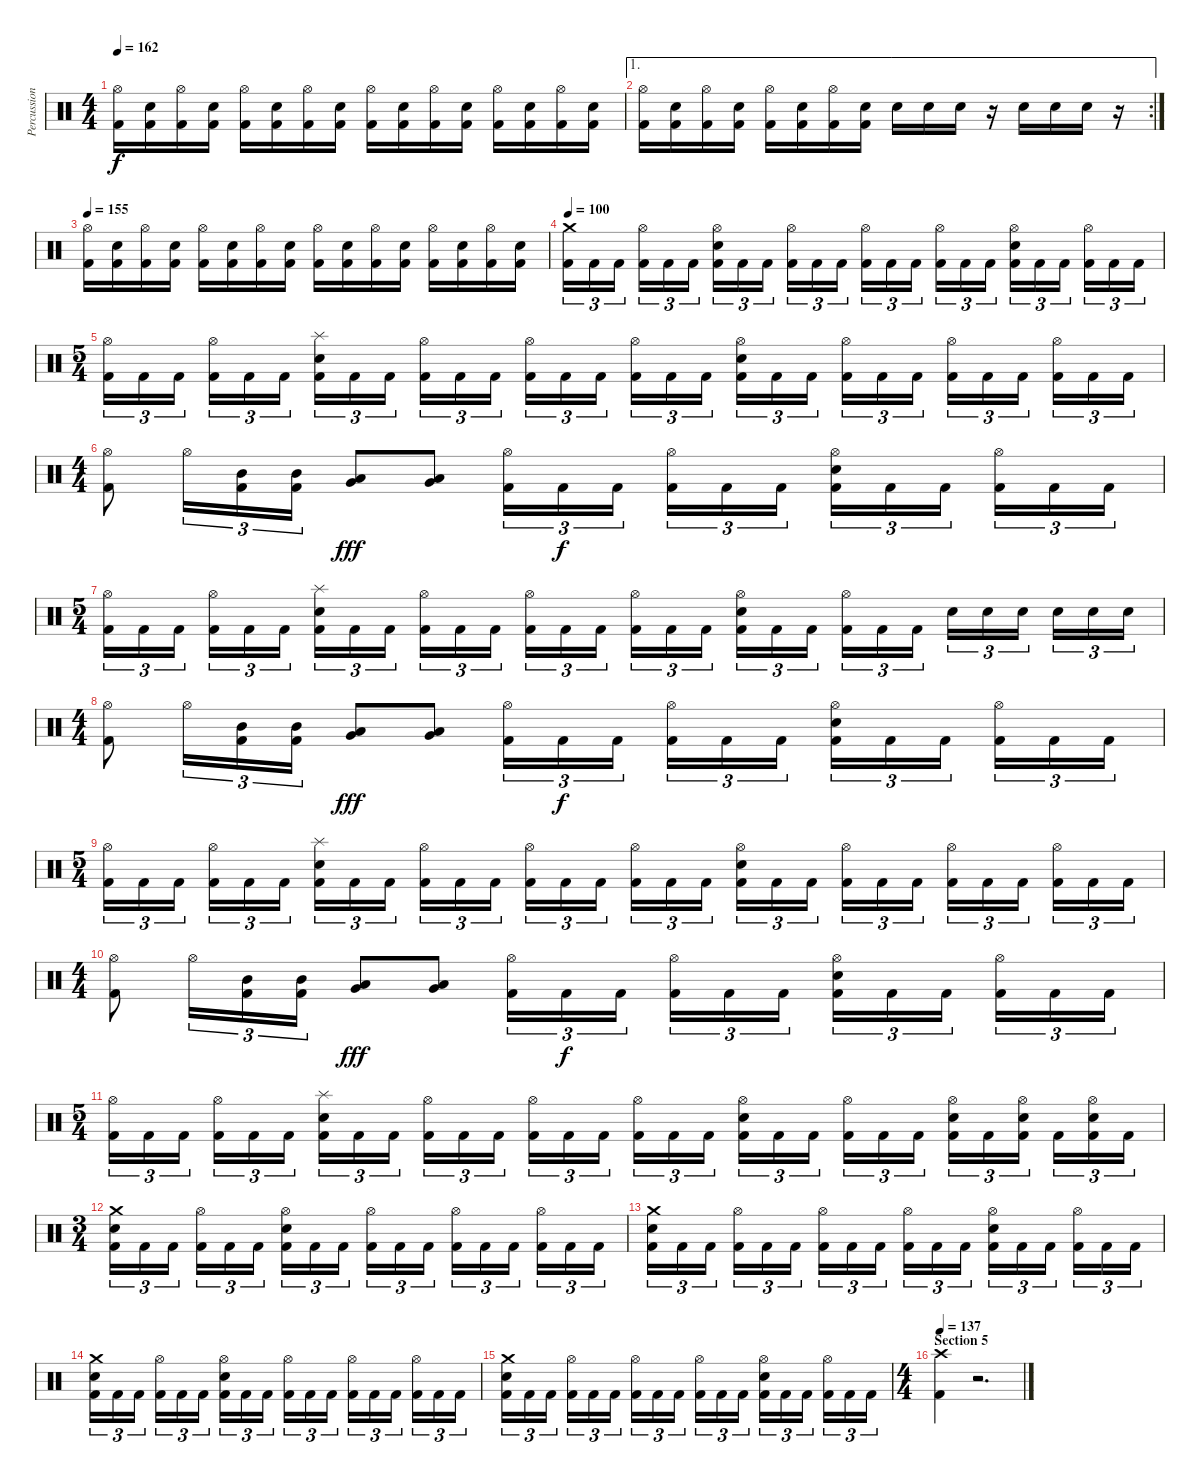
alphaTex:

\track ("Percussion" "Percussion") {instrument percussion}
\staff {score}
\articulation defaults
\ts (4 4)
\tempo 162
\clef neutral
\ks c
("Hi-Hat (open)" "Kick (hit) 2").16{dy f} ("Electric Snare (hit)" "Kick (hit) 2").16 ("Hi-Hat (open)" "Kick (hit) 2").16 ("Electric Snare (hit)" "Kick (hit) 2").16 ("Hi-Hat (open)" "Kick (hit) 2").16 ("Electric Snare (hit)" "Kick (hit) 2").16 ("Hi-Hat (open)" "Kick (hit) 2").16 ("Electric Snare (hit)" "Kick (hit) 2").16 ("Hi-Hat (open)" "Kick (hit) 2").16 ("Electric Snare (hit)" "Kick (hit) 2").16 ("Hi-Hat (open)" "Kick (hit) 2").16 ("Electric Snare (hit)" "Kick (hit) 2").16 ("Hi-Hat (open)" "Kick (hit) 2").16 ("Electric Snare (hit)" "Kick (hit) 2").16 ("Hi-Hat (open)" "Kick (hit) 2").16 ("Electric Snare (hit)" "Kick (hit) 2").16 |
\ae 1
\rc 2
("Hi-Hat (open)" "Kick (hit) 2").16 ("Electric Snare (hit)" "Kick (hit) 2").16 ("Hi-Hat (open)" "Kick (hit) 2").16 ("Electric Snare (hit)" "Kick (hit) 2").16 ("Hi-Hat (open)" "Kick (hit) 2").16 ("Electric Snare (hit)" "Kick (hit) 2").16 ("Hi-Hat (open)" "Kick (hit) 2").16 ("Electric Snare (hit)" "Kick (hit) 2").16 "Electric Snare (hit)".16 "Electric Snare (hit)".16 "Electric Snare (hit)".16 r.16 "Electric Snare (hit)".16 "Electric Snare (hit)".16 "Electric Snare (hit)".16 r.16 |
\tempo 155
("Hi-Hat (open)" "Kick (hit) 2").16 ("Electric Snare (hit)" "Kick (hit) 2").16 ("Hi-Hat (open)" "Kick (hit) 2").16 ("Electric Snare (hit)" "Kick (hit) 2").16 ("Hi-Hat (open)" "Kick (hit) 2").16 ("Electric Snare (hit)" "Kick (hit) 2").16 ("Hi-Hat (open)" "Kick (hit) 2").16 ("Electric Snare (hit)" "Kick (hit) 2").16 ("Hi-Hat (open)" "Kick (hit) 2").16 ("Electric Snare (hit)" "Kick (hit) 2").16 ("Hi-Hat (open)" "Kick (hit) 2").16 ("Electric Snare (hit)" "Kick (hit) 2").16 ("Hi-Hat (open)" "Kick (hit) 2").16 ("Electric Snare (hit)" "Kick (hit) 2").16 ("Hi-Hat (open)" "Kick (hit) 2").16 ("Electric Snare (hit)" "Kick (hit) 2").16 |
\tempo 100
("Crash medium (hit)" "Kick (hit) 2").16{tu (3 2)} "Kick (hit) 2".16{tu (3 2)} "Kick (hit) 2".16{tu (3 2)} ("Hi-Hat (open)" "Kick (hit) 2").16{tu (3 2)} "Kick (hit) 2".16{tu (3 2)} "Kick (hit) 2".16{tu (3 2)} ("Hi-Hat (open)" "Electric Snare (hit)" "Kick (hit) 2").16{tu (3 2)} "Kick (hit) 2".16{tu (3 2)} "Kick (hit) 2".16{tu (3 2)} ("Hi-Hat (open)" "Kick (hit) 2").16{tu (3 2)} "Kick (hit) 2".16{tu (3 2)} "Kick (hit) 2".16{tu (3 2)} ("Hi-Hat (open)" "Kick (hit) 2").16{tu (3 2)} "Kick (hit) 2".16{tu (3 2)} "Kick (hit) 2".16{tu (3 2)} ("Hi-Hat (open)" "Kick (hit) 2").16{tu (3 2)} "Kick (hit) 2".16{tu (3 2)} "Kick (hit) 2".16{tu (3 2)} ("Hi-Hat (open)" "Electric Snare (hit)" "Kick (hit) 2").16{tu (3 2)} "Kick (hit) 2".16{tu (3 2)} "Kick (hit) 2".16{tu (3 2)} ("Hi-Hat (open)" "Kick (hit) 2").16{tu (3 2)} "Kick (hit) 2".16{tu (3 2)} "Kick (hit) 2".16{tu (3 2)} |
\ts (5 4)
("Hi-Hat (open)" "Kick (hit) 2").16{tu (3 2)} "Kick (hit) 2".16{tu (3 2)} "Kick (hit) 2".16{tu (3 2)} ("Hi-Hat (open)" "Kick (hit) 2").16{tu (3 2)} "Kick (hit) 2".16{tu (3 2)} "Kick (hit) 2".16{tu (3 2)} ("Splash (hit)" "Electric Snare (hit)" "Kick (hit) 2").16{tu (3 2)} "Kick (hit) 2".16{tu (3 2)} "Kick (hit) 2".16{tu (3 2)} ("Hi-Hat (open)" "Kick (hit) 2").16{tu (3 2)} "Kick (hit) 2".16{tu (3 2)} "Kick (hit) 2".16{tu (3 2)} ("Hi-Hat (open)" "Kick (hit) 2").16{tu (3 2)} "Kick (hit) 2".16{tu (3 2)} "Kick (hit) 2".16{tu (3 2)} ("Hi-Hat (open)" "Kick (hit) 2").16{tu (3 2)} "Kick (hit) 2".16{tu (3 2)} "Kick (hit) 2".16{tu (3 2)} ("Hi-Hat (open)" "Electric Snare (hit)" "Kick (hit) 2").16{tu (3 2)} "Kick (hit) 2".16{tu (3 2)} "Kick (hit) 2".16{tu (3 2)} ("Hi-Hat (open)" "Kick (hit) 2").16{tu (3 2)} "Kick (hit) 2".16{tu (3 2)} "Kick (hit) 2".16{tu (3 2)} ("Hi-Hat (open)" "Kick (hit) 2").16{tu (3 2)} "Kick (hit) 2".16{tu (3 2)} "Kick (hit) 2".16{tu (3 2)} ("Hi-Hat (open)" "Kick (hit) 2").16{tu (3 2)} "Kick (hit) 2".16{tu (3 2)} "Kick (hit) 2".16{tu (3 2)} |
\ts (4 4)
("Hi-Hat (open)" "Kick (hit) 2").8 "Hi-Hat (open)".16{tu (3 2)} ("Mid Tom (hit)" "Kick (hit) 2").16{tu (3 2)} ("Mid Tom (hit)" "Kick (hit) 2").16{tu (3 2)} ("Low Tom (hit)" "Very Low Tom (hit)").8{dy fff} ("Low Tom (hit)" "Very Low Tom (hit)").8 ("Hi-Hat (open)" "Kick (hit) 2").16{tu (3 2)} "Kick (hit) 2".16{tu (3 2) dy f} "Kick (hit) 2".16{tu (3 2)} ("Hi-Hat (open)" "Kick (hit) 2").16{tu (3 2)} "Kick (hit) 2".16{tu (3 2)} "Kick (hit) 2".16{tu (3 2)} ("Hi-Hat (open)" "Electric Snare (hit)" "Kick (hit) 2").16{tu (3 2)} "Kick (hit) 2".16{tu (3 2)} "Kick (hit) 2".16{tu (3 2)} ("Hi-Hat (open)" "Kick (hit) 2").16{tu (3 2)} "Kick (hit) 2".16{tu (3 2)} "Kick (hit) 2".16{tu (3 2)} |
\ts (5 4)
("Hi-Hat (open)" "Kick (hit) 2").16{tu (3 2)} "Kick (hit) 2".16{tu (3 2)} "Kick (hit) 2".16{tu (3 2)} ("Hi-Hat (open)" "Kick (hit) 2").16{tu (3 2)} "Kick (hit) 2".16{tu (3 2)} "Kick (hit) 2".16{tu (3 2)} ("Splash (hit)" "Electric Snare (hit)" "Kick (hit) 2").16{tu (3 2)} "Kick (hit) 2".16{tu (3 2)} "Kick (hit) 2".16{tu (3 2)} ("Hi-Hat (open)" "Kick (hit) 2").16{tu (3 2)} "Kick (hit) 2".16{tu (3 2)} "Kick (hit) 2".16{tu (3 2)} ("Hi-Hat (open)" "Kick (hit) 2").16{tu (3 2)} "Kick (hit) 2".16{tu (3 2)} "Kick (hit) 2".16{tu (3 2)} ("Hi-Hat (open)" "Kick (hit) 2").16{tu (3 2)} "Kick (hit) 2".16{tu (3 2)} "Kick (hit) 2".16{tu (3 2)} ("Hi-Hat (open)" "Electric Snare (hit)" "Kick (hit) 2").16{tu (3 2)} "Kick (hit) 2".16{tu (3 2)} "Kick (hit) 2".16{tu (3 2)} ("Hi-Hat (open)" "Kick (hit) 2").16{tu (3 2)} "Kick (hit) 2".16{tu (3 2)} "Kick (hit) 2".16{tu (3 2)} "Electric Snare (hit)".16{tu (3 2)} "Electric Snare (hit)".16{tu (3 2)} "Electric Snare (hit)".16{tu (3 2)} "Electric Snare (hit)".16{tu (3 2)} "Electric Snare (hit)".16{tu (3 2)} "Electric Snare (hit)".16{tu (3 2)} |
\ts (4 4)
("Hi-Hat (open)" "Kick (hit) 2").8 "Hi-Hat (open)".16{tu (3 2)} ("Mid Tom (hit)" "Kick (hit) 2").16{tu (3 2)} ("Mid Tom (hit)" "Kick (hit) 2").16{tu (3 2)} ("Low Tom (hit)" "Very Low Tom (hit)").8{dy fff} ("Low Tom (hit)" "Very Low Tom (hit)").8 ("Hi-Hat (open)" "Kick (hit) 2").16{tu (3 2)} "Kick (hit) 2".16{tu (3 2) dy f} "Kick (hit) 2".16{tu (3 2)} ("Hi-Hat (open)" "Kick (hit) 2").16{tu (3 2)} "Kick (hit) 2".16{tu (3 2)} "Kick (hit) 2".16{tu (3 2)} ("Hi-Hat (open)" "Electric Snare (hit)" "Kick (hit) 2").16{tu (3 2)} "Kick (hit) 2".16{tu (3 2)} "Kick (hit) 2".16{tu (3 2)} ("Hi-Hat (open)" "Kick (hit) 2").16{tu (3 2)} "Kick (hit) 2".16{tu (3 2)} "Kick (hit) 2".16{tu (3 2)} |
\ts (5 4)
("Hi-Hat (open)" "Kick (hit) 2").16{tu (3 2)} "Kick (hit) 2".16{tu (3 2)} "Kick (hit) 2".16{tu (3 2)} ("Hi-Hat (open)" "Kick (hit) 2").16{tu (3 2)} "Kick (hit) 2".16{tu (3 2)} "Kick (hit) 2".16{tu (3 2)} ("Splash (hit)" "Electric Snare (hit)" "Kick (hit) 2").16{tu (3 2)} "Kick (hit) 2".16{tu (3 2)} "Kick (hit) 2".16{tu (3 2)} ("Hi-Hat (open)" "Kick (hit) 2").16{tu (3 2)} "Kick (hit) 2".16{tu (3 2)} "Kick (hit) 2".16{tu (3 2)} ("Hi-Hat (open)" "Kick (hit) 2").16{tu (3 2)} "Kick (hit) 2".16{tu (3 2)} "Kick (hit) 2".16{tu (3 2)} ("Hi-Hat (open)" "Kick (hit) 2").16{tu (3 2)} "Kick (hit) 2".16{tu (3 2)} "Kick (hit) 2".16{tu (3 2)} ("Hi-Hat (open)" "Electric Snare (hit)" "Kick (hit) 2").16{tu (3 2)} "Kick (hit) 2".16{tu (3 2)} "Kick (hit) 2".16{tu (3 2)} ("Hi-Hat (open)" "Kick (hit) 2").16{tu (3 2)} "Kick (hit) 2".16{tu (3 2)} "Kick (hit) 2".16{tu (3 2)} ("Hi-Hat (open)" "Kick (hit) 2").16{tu (3 2)} "Kick (hit) 2".16{tu (3 2)} "Kick (hit) 2".16{tu (3 2)} ("Hi-Hat (open)" "Kick (hit) 2").16{tu (3 2)} "Kick (hit) 2".16{tu (3 2)} "Kick (hit) 2".16{tu (3 2)} |
\ts (4 4)
("Hi-Hat (open)" "Kick (hit) 2").8 "Hi-Hat (open)".16{tu (3 2)} ("Mid Tom (hit)" "Kick (hit) 2").16{tu (3 2)} ("Mid Tom (hit)" "Kick (hit) 2").16{tu (3 2)} ("Low Tom (hit)" "Very Low Tom (hit)").8{dy fff} ("Low Tom (hit)" "Very Low Tom (hit)").8 ("Hi-Hat (open)" "Kick (hit) 2").16{tu (3 2)} "Kick (hit) 2".16{tu (3 2) dy f} "Kick (hit) 2".16{tu (3 2)} ("Hi-Hat (open)" "Kick (hit) 2").16{tu (3 2)} "Kick (hit) 2".16{tu (3 2)} "Kick (hit) 2".16{tu (3 2)} ("Hi-Hat (open)" "Electric Snare (hit)" "Kick (hit) 2").16{tu (3 2)} "Kick (hit) 2".16{tu (3 2)} "Kick (hit) 2".16{tu (3 2)} ("Hi-Hat (open)" "Kick (hit) 2").16{tu (3 2)} "Kick (hit) 2".16{tu (3 2)} "Kick (hit) 2".16{tu (3 2)} |
\ts (5 4)
("Hi-Hat (open)" "Kick (hit) 2").16{tu (3 2)} "Kick (hit) 2".16{tu (3 2)} "Kick (hit) 2".16{tu (3 2)} ("Hi-Hat (open)" "Kick (hit) 2").16{tu (3 2)} "Kick (hit) 2".16{tu (3 2)} "Kick (hit) 2".16{tu (3 2)} ("Splash (hit)" "Electric Snare (hit)" "Kick (hit) 2").16{tu (3 2)} "Kick (hit) 2".16{tu (3 2)} "Kick (hit) 2".16{tu (3 2)} ("Hi-Hat (open)" "Kick (hit) 2").16{tu (3 2)} "Kick (hit) 2".16{tu (3 2)} "Kick (hit) 2".16{tu (3 2)} ("Hi-Hat (open)" "Kick (hit) 2").16{tu (3 2)} "Kick (hit) 2".16{tu (3 2)} "Kick (hit) 2".16{tu (3 2)} ("Hi-Hat (open)" "Kick (hit) 2").16{tu (3 2)} "Kick (hit) 2".16{tu (3 2)} "Kick (hit) 2".16{tu (3 2)} ("Hi-Hat (open)" "Electric Snare (hit)" "Kick (hit) 2").16{tu (3 2)} "Kick (hit) 2".16{tu (3 2)} "Kick (hit) 2".16{tu (3 2)} ("Hi-Hat (open)" "Kick (hit) 2").16{tu (3 2)} "Kick (hit) 2".16{tu (3 2)} "Kick (hit) 2".16{tu (3 2)} ("Hi-Hat (open)" "Electric Snare (hit)" "Kick (hit) 2").16{tu (3 2)} "Kick (hit) 2".16{tu (3 2)} ("Hi-Hat (open)" "Electric Snare (hit)" "Kick (hit) 2").16{tu (3 2)} "Kick (hit) 2".16{tu (3 2)} ("Hi-Hat (open)" "Electric Snare (hit)" "Kick (hit) 2").16{tu (3 2)} "Kick (hit) 2".16{tu (3 2)} |
\ts (3 4)
("Crash medium (hit)" "Electric Snare (hit)" "Kick (hit) 2").16{tu (3 2)} "Kick (hit) 2".16{tu (3 2)} "Kick (hit) 2".16{tu (3 2)} ("Hi-Hat (open)" "Kick (hit) 2").16{tu (3 2)} "Kick (hit) 2".16{tu (3 2)} "Kick (hit) 2".16{tu (3 2)} ("Hi-Hat (open)" "Electric Snare (hit)" "Kick (hit) 2").16{tu (3 2)} "Kick (hit) 2".16{tu (3 2)} "Kick (hit) 2".16{tu (3 2)} ("Hi-Hat (open)" "Kick (hit) 2").16{tu (3 2)} "Kick (hit) 2".16{tu (3 2)} "Kick (hit) 2".16{tu (3 2)} ("Hi-Hat (open)" "Kick (hit) 2").16{tu (3 2)} "Kick (hit) 2".16{tu (3 2)} "Kick (hit) 2".16{tu (3 2)} ("Hi-Hat (open)" "Kick (hit) 2").16{tu (3 2)} "Kick (hit) 2".16{tu (3 2)} "Kick (hit) 2".16{tu (3 2)} |
("Crash medium (hit)" "Electric Snare (hit)" "Kick (hit) 2").16{tu (3 2)} "Kick (hit) 2".16{tu (3 2)} "Kick (hit) 2".16{tu (3 2)} ("Hi-Hat (open)" "Kick (hit) 2").16{tu (3 2)} "Kick (hit) 2".16{tu (3 2)} "Kick (hit) 2".16{tu (3 2)} ("Hi-Hat (open)" "Kick (hit) 2").16{tu (3 2)} "Kick (hit) 2".16{tu (3 2)} "Kick (hit) 2".16{tu (3 2)} ("Hi-Hat (open)" "Kick (hit) 2").16{tu (3 2)} "Kick (hit) 2".16{tu (3 2)} "Kick (hit) 2".16{tu (3 2)} ("Hi-Hat (open)" "Electric Snare (hit)" "Kick (hit) 2").16{tu (3 2)} "Kick (hit) 2".16{tu (3 2)} "Kick (hit) 2".16{tu (3 2)} ("Hi-Hat (open)" "Kick (hit) 2").16{tu (3 2)} "Kick (hit) 2".16{tu (3 2)} "Kick (hit) 2".16{tu (3 2)} |
("Crash medium (hit)" "Electric Snare (hit)" "Kick (hit) 2").16{tu (3 2)} "Kick (hit) 2".16{tu (3 2)} "Kick (hit) 2".16{tu (3 2)} ("Hi-Hat (open)" "Kick (hit) 2").16{tu (3 2)} "Kick (hit) 2".16{tu (3 2)} "Kick (hit) 2".16{tu (3 2)} ("Hi-Hat (open)" "Electric Snare (hit)" "Kick (hit) 2").16{tu (3 2)} "Kick (hit) 2".16{tu (3 2)} "Kick (hit) 2".16{tu (3 2)} ("Hi-Hat (open)" "Kick (hit) 2").16{tu (3 2)} "Kick (hit) 2".16{tu (3 2)} "Kick (hit) 2".16{tu (3 2)} ("Hi-Hat (open)" "Kick (hit) 2").16{tu (3 2)} "Kick (hit) 2".16{tu (3 2)} "Kick (hit) 2".16{tu (3 2)} ("Hi-Hat (open)" "Kick (hit) 2").16{tu (3 2)} "Kick (hit) 2".16{tu (3 2)} "Kick (hit) 2".16{tu (3 2)} |
("Crash medium (hit)" "Electric Snare (hit)" "Kick (hit) 2").16{tu (3 2)} "Kick (hit) 2".16{tu (3 2)} "Kick (hit) 2".16{tu (3 2)} ("Hi-Hat (open)" "Kick (hit) 2").16{tu (3 2)} "Kick (hit) 2".16{tu (3 2)} "Kick (hit) 2".16{tu (3 2)} ("Hi-Hat (open)" "Kick (hit) 2").16{tu (3 2)} "Kick (hit) 2".16{tu (3 2)} "Kick (hit) 2".16{tu (3 2)} ("Hi-Hat (open)" "Kick (hit) 2").16{tu (3 2)} "Kick (hit) 2".16{tu (3 2)} "Kick (hit) 2".16{tu (3 2)} ("Hi-Hat (open)" "Electric Snare (hit)" "Kick (hit) 2").16{tu (3 2)} "Kick (hit) 2".16{tu (3 2)} "Kick (hit) 2".16{tu (3 2)} ("Hi-Hat (open)" "Kick (hit) 2").16{tu (3 2)} "Kick (hit) 2".16{tu (3 2)} "Kick (hit) 2".16{tu (3 2)} |
\ts (4 4)
\section ("" "Section 5")
\tempo 137
("Crash high (hit)" "Kick (hit) 2").4 r.2{d}
